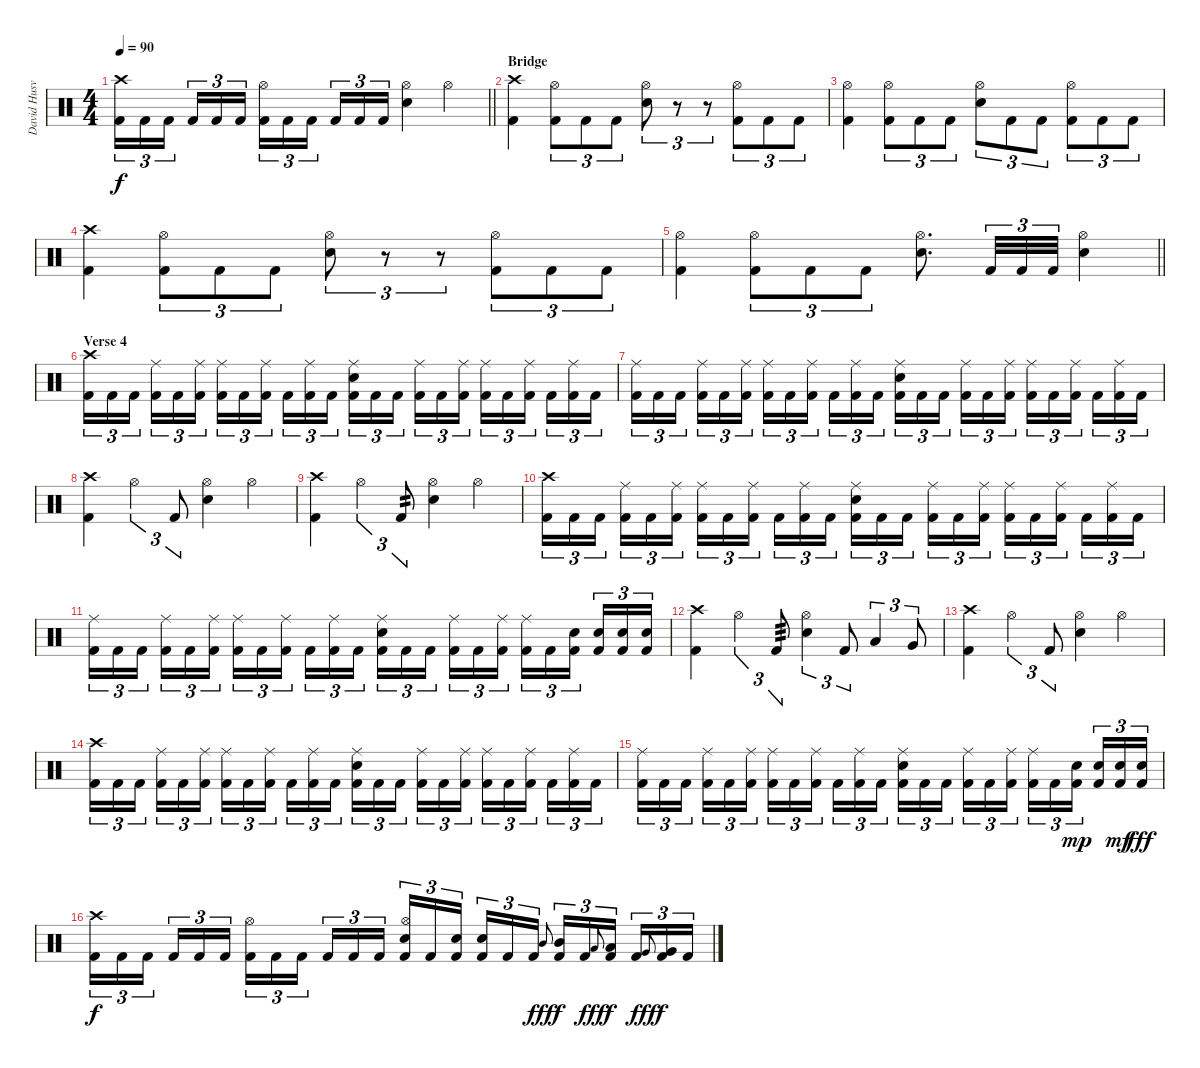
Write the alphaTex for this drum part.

\track ("David Husvik" "David Husv") {instrument percussion}
\staff {score}
\articulation defaults
\ts (4 4)
\tempo 90
\clef neutral
\barLineRight lightlight
\ks c
("Kick (hit) 2" "Crash high (hit)").16{tu (3 2) dy f} "Kick (hit) 2".16{tu (3 2)} "Kick (hit) 2".16{tu (3 2) beam splitsecondary} "Kick (hit) 2".16{tu (3 2)} "Kick (hit) 2".16{tu (3 2)} "Kick (hit) 2".16{tu (3 2)} ("Kick (hit) 2" "Hi-Hat (open)").16{tu (3 2)} "Kick (hit) 2".16{tu (3 2)} "Kick (hit) 2".16{tu (3 2) beam splitsecondary} "Kick (hit) 2".16{tu (3 2)} "Kick (hit) 2".16{tu (3 2)} "Kick (hit) 2".16{tu (3 2)} ("Hi-Hat (open)" "Snare (hit) 2").4 "Hi-Hat (open)".4 |
\section ("" "Bridge")
("Kick (hit) 2" "Crash high (hit)").4 ("Hi-Hat (open)" "Kick (hit) 2").8{tu (3 2)} "Kick (hit) 2".8{tu (3 2)} "Kick (hit) 2".8{tu (3 2)} ("Hi-Hat (open)" "Snare (hit) 2").8{tu (3 2)} r.8{tu (3 2)} r.8{tu (3 2)} ("Kick (hit) 2" "Hi-Hat (open)").8{tu (3 2)} "Kick (hit) 2".8{tu (3 2)} "Kick (hit) 2".8{tu (3 2)} |
("Kick (hit) 2" "Hi-Hat (open)").4 ("Hi-Hat (open)" "Kick (hit) 2").8{tu (3 2)} "Kick (hit) 2".8{tu (3 2)} "Kick (hit) 2".8{tu (3 2)} ("Hi-Hat (open)" "Snare (hit) 2").8{tu (3 2)} "Kick (hit) 2".8{tu (3 2)} "Kick (hit) 2".8{tu (3 2)} ("Hi-Hat (open)" "Kick (hit) 2").8{tu (3 2)} "Kick (hit) 2".8{tu (3 2)} "Kick (hit) 2".8{tu (3 2)} |
("Kick (hit) 2" "Crash high (hit)").4 ("Hi-Hat (open)" "Kick (hit) 2").8{tu (3 2)} "Kick (hit) 2".8{tu (3 2)} "Kick (hit) 2".8{tu (3 2)} ("Hi-Hat (open)" "Snare (hit) 2").8{tu (3 2)} r.8{tu (3 2)} r.8{tu (3 2)} ("Kick (hit) 2" "Hi-Hat (open)").8{tu (3 2)} "Kick (hit) 2".8{tu (3 2)} "Kick (hit) 2".8{tu (3 2)} |
\barLineRight lightlight
("Kick (hit) 2" "Hi-Hat (open)").4 ("Hi-Hat (open)" "Kick (hit) 2").8{tu (3 2)} "Kick (hit) 2".8{tu (3 2)} "Kick (hit) 2".8{tu (3 2)} ("Hi-Hat (open)" "Snare (hit) 2").8{d} "Kick (hit) 2".32{tu (3 2)} "Kick (hit) 2".32{tu (3 2)} "Kick (hit) 2".32{tu (3 2)} ("Snare (hit) 2" "Hi-Hat (open)").4 |
\section ("" "Verse 4")
("Kick (hit) 2" "Crash high (hit)").16{tu (3 2)} "Kick (hit) 2".16{tu (3 2)} "Kick (hit) 2".16{tu (3 2) beam splitsecondary} ("Kick (hit) 2" "Ride (middle)").16{tu (3 2)} "Kick (hit) 2".16{tu (3 2)} ("Kick (hit) 2" "Ride (middle)").16{tu (3 2)} ("Kick (hit) 2" "Ride (middle)").16{tu (3 2)} "Kick (hit) 2".16{tu (3 2)} ("Kick (hit) 2" "Ride (middle)").16{tu (3 2) beam splitsecondary} "Kick (hit) 2".16{tu (3 2)} ("Kick (hit) 2" "Ride (middle)").16{tu (3 2)} "Kick (hit) 2".16{tu (3 2)} ("Kick (hit) 2" "Snare (hit) 2" "Ride (middle)").16{tu (3 2)} "Kick (hit) 2".16{tu (3 2)} "Kick (hit) 2".16{tu (3 2) beam splitsecondary} ("Kick (hit) 2" "Ride (middle)").16{tu (3 2)} "Kick (hit) 2".16{tu (3 2)} ("Kick (hit) 2" "Ride (middle)").16{tu (3 2)} ("Kick (hit) 2" "Ride (middle)").16{tu (3 2)} "Kick (hit) 2".16{tu (3 2)} ("Kick (hit) 2" "Ride (middle)").16{tu (3 2) beam splitsecondary} "Kick (hit) 2".16{tu (3 2)} ("Kick (hit) 2" "Ride (middle)").16{tu (3 2)} "Kick (hit) 2".16{tu (3 2)} |
("Kick (hit) 2" "Ride (middle)").16{tu (3 2)} "Kick (hit) 2".16{tu (3 2)} "Kick (hit) 2".16{tu (3 2) beam splitsecondary} ("Kick (hit) 2" "Ride (middle)").16{tu (3 2)} "Kick (hit) 2".16{tu (3 2)} ("Kick (hit) 2" "Ride (middle)").16{tu (3 2)} ("Kick (hit) 2" "Ride (middle)").16{tu (3 2)} "Kick (hit) 2".16{tu (3 2)} ("Kick (hit) 2" "Ride (middle)").16{tu (3 2) beam splitsecondary} "Kick (hit) 2".16{tu (3 2)} ("Kick (hit) 2" "Ride (middle)").16{tu (3 2)} "Kick (hit) 2".16{tu (3 2)} ("Kick (hit) 2" "Snare (hit) 2" "Ride (middle)").16{tu (3 2)} "Kick (hit) 2".16{tu (3 2)} "Kick (hit) 2".16{tu (3 2) beam splitsecondary} ("Kick (hit) 2" "Ride (middle)").16{tu (3 2)} "Kick (hit) 2".16{tu (3 2)} ("Kick (hit) 2" "Ride (middle)").16{tu (3 2)} ("Kick (hit) 2" "Ride (middle)").16{tu (3 2)} "Kick (hit) 2".16{tu (3 2)} ("Kick (hit) 2" "Ride (middle)").16{tu (3 2) beam splitsecondary} "Kick (hit) 2".16{tu (3 2)} ("Kick (hit) 2" "Ride (middle)").16{tu (3 2)} "Kick (hit) 2".16{tu (3 2)} |
("Crash high (hit)" "Kick (hit) 2").4 "Hi-Hat (open)".4{tu (3 2)} "Kick (hit) 2".8{tu (3 2)} ("Hi-Hat (open)" "Snare (hit) 2").4 "Hi-Hat (open)".4 |
("Crash high (hit)" "Kick (hit) 2").4 "Hi-Hat (open)".4{tu (3 2)} "Kick (hit) 2".8{tu (3 2) tp 2} ("Hi-Hat (open)" "Snare (hit) 2").4 "Hi-Hat (open)".4 |
("Kick (hit) 2" "Crash high (hit)").16{tu (3 2)} "Kick (hit) 2".16{tu (3 2)} "Kick (hit) 2".16{tu (3 2) beam splitsecondary} ("Kick (hit) 2" "Ride (middle)").16{tu (3 2)} "Kick (hit) 2".16{tu (3 2)} ("Kick (hit) 2" "Ride (middle)").16{tu (3 2)} ("Kick (hit) 2" "Ride (middle)").16{tu (3 2)} "Kick (hit) 2".16{tu (3 2)} ("Kick (hit) 2" "Ride (middle)").16{tu (3 2) beam splitsecondary} "Kick (hit) 2".16{tu (3 2)} ("Kick (hit) 2" "Ride (middle)").16{tu (3 2)} "Kick (hit) 2".16{tu (3 2)} ("Kick (hit) 2" "Snare (hit) 2" "Ride (middle)").16{tu (3 2)} "Kick (hit) 2".16{tu (3 2)} "Kick (hit) 2".16{tu (3 2) beam splitsecondary} ("Kick (hit) 2" "Ride (middle)").16{tu (3 2)} "Kick (hit) 2".16{tu (3 2)} ("Kick (hit) 2" "Ride (middle)").16{tu (3 2)} ("Kick (hit) 2" "Ride (middle)").16{tu (3 2)} "Kick (hit) 2".16{tu (3 2)} ("Kick (hit) 2" "Ride (middle)").16{tu (3 2) beam splitsecondary} "Kick (hit) 2".16{tu (3 2)} ("Kick (hit) 2" "Ride (middle)").16{tu (3 2)} "Kick (hit) 2".16{tu (3 2)} |
("Kick (hit) 2" "Ride (middle)").16{tu (3 2)} "Kick (hit) 2".16{tu (3 2)} "Kick (hit) 2".16{tu (3 2) beam splitsecondary} ("Kick (hit) 2" "Ride (middle)").16{tu (3 2)} "Kick (hit) 2".16{tu (3 2)} ("Kick (hit) 2" "Ride (middle)").16{tu (3 2)} ("Kick (hit) 2" "Ride (middle)").16{tu (3 2)} "Kick (hit) 2".16{tu (3 2)} ("Kick (hit) 2" "Ride (middle)").16{tu (3 2) beam splitsecondary} "Kick (hit) 2".16{tu (3 2)} ("Kick (hit) 2" "Ride (middle)").16{tu (3 2)} "Kick (hit) 2".16{tu (3 2)} ("Kick (hit) 2" "Snare (hit) 2" "Ride (middle)").16{tu (3 2)} "Kick (hit) 2".16{tu (3 2)} "Kick (hit) 2".16{tu (3 2) beam splitsecondary} ("Kick (hit) 2" "Ride (middle)").16{tu (3 2)} "Kick (hit) 2".16{tu (3 2)} ("Kick (hit) 2" "Ride (middle)").16{tu (3 2)} ("Kick (hit) 2" "Ride (middle)").16{tu (3 2)} "Kick (hit) 2".16{tu (3 2)} ("Kick (hit) 2" "Snare (hit) 2").16{tu (3 2) beam splitsecondary} ("Kick (hit) 2" "Snare (hit) 2").16{tu (3 2)} ("Kick (hit) 2" "Snare (hit) 2").16{tu (3 2)} ("Kick (hit) 2" "Snare (hit) 2").16{tu (3 2)} |
("Crash high (hit)" "Kick (hit) 2").4 "Hi-Hat (open)".4{tu (3 2)} "Kick (hit) 2".8{tu (3 2) tp 3} ("Hi-Hat (open)" "Snare (hit) 2").4{tu (3 2)} "Kick (hit) 2".8{tu (3 2)} "Low Tom (hit)".4{tu (3 2)} "Very Low Tom (hit)".8{tu (3 2)} |
("Crash high (hit)" "Kick (hit) 2").4 "Hi-Hat (open)".4{tu (3 2)} "Kick (hit) 2".8{tu (3 2)} ("Hi-Hat (open)" "Snare (hit) 2").4 "Hi-Hat (open)".4 |
("Kick (hit) 2" "Crash high (hit)").16{tu (3 2)} "Kick (hit) 2".16{tu (3 2)} "Kick (hit) 2".16{tu (3 2) beam splitsecondary} ("Kick (hit) 2" "Ride (middle)").16{tu (3 2)} "Kick (hit) 2".16{tu (3 2)} ("Kick (hit) 2" "Ride (middle)").16{tu (3 2)} ("Kick (hit) 2" "Ride (middle)").16{tu (3 2)} "Kick (hit) 2".16{tu (3 2)} ("Kick (hit) 2" "Ride (middle)").16{tu (3 2) beam splitsecondary} "Kick (hit) 2".16{tu (3 2)} ("Kick (hit) 2" "Ride (middle)").16{tu (3 2)} "Kick (hit) 2".16{tu (3 2)} ("Kick (hit) 2" "Snare (hit) 2" "Ride (middle)").16{tu (3 2)} "Kick (hit) 2".16{tu (3 2)} "Kick (hit) 2".16{tu (3 2) beam splitsecondary} ("Kick (hit) 2" "Ride (middle)").16{tu (3 2)} "Kick (hit) 2".16{tu (3 2)} ("Kick (hit) 2" "Ride (middle)").16{tu (3 2)} ("Kick (hit) 2" "Ride (middle)").16{tu (3 2)} "Kick (hit) 2".16{tu (3 2)} ("Kick (hit) 2" "Ride (middle)").16{tu (3 2) beam splitsecondary} "Kick (hit) 2".16{tu (3 2)} ("Kick (hit) 2" "Ride (middle)").16{tu (3 2)} "Kick (hit) 2".16{tu (3 2)} |
("Kick (hit) 2" "Ride (middle)").16{tu (3 2)} "Kick (hit) 2".16{tu (3 2)} "Kick (hit) 2".16{tu (3 2) beam splitsecondary} ("Kick (hit) 2" "Ride (middle)").16{tu (3 2)} "Kick (hit) 2".16{tu (3 2)} ("Kick (hit) 2" "Ride (middle)").16{tu (3 2)} ("Kick (hit) 2" "Ride (middle)").16{tu (3 2)} "Kick (hit) 2".16{tu (3 2)} ("Kick (hit) 2" "Ride (middle)").16{tu (3 2) beam splitsecondary} "Kick (hit) 2".16{tu (3 2)} ("Kick (hit) 2" "Ride (middle)").16{tu (3 2)} "Kick (hit) 2".16{tu (3 2)} ("Kick (hit) 2" "Snare (hit) 2" "Ride (middle)").16{tu (3 2)} "Kick (hit) 2".16{tu (3 2)} "Kick (hit) 2".16{tu (3 2) beam splitsecondary} ("Kick (hit) 2" "Ride (middle)").16{tu (3 2)} "Kick (hit) 2".16{tu (3 2)} ("Kick (hit) 2" "Ride (middle)").16{tu (3 2)} ("Kick (hit) 2" "Ride (middle)").16{tu (3 2)} "Kick (hit) 2".16{tu (3 2)} ("Kick (hit) 2" "Snare (hit) 2").16{tu (3 2) dy mp beam splitsecondary} ("Kick (hit) 2" "Snare (hit) 2").16{tu (3 2)} ("Kick (hit) 2" "Snare (hit) 2").16{tu (3 2) dy mf} ("Kick (hit) 2" "Snare (hit) 2").16{tu (3 2) dy fff} |
("Kick (hit) 2" "Crash high (hit)").16{tu (3 2) dy f} "Kick (hit) 2".16{tu (3 2)} "Kick (hit) 2".16{tu (3 2) beam splitsecondary} "Kick (hit) 2".16{tu (3 2)} "Kick (hit) 2".16{tu (3 2)} "Kick (hit) 2".16{tu (3 2)} ("Kick (hit) 2" "Hi-Hat (open)").16{tu (3 2)} "Kick (hit) 2".16{tu (3 2)} "Kick (hit) 2".16{tu (3 2) beam splitsecondary} "Kick (hit) 2".16{tu (3 2)} "Kick (hit) 2".16{tu (3 2)} "Kick (hit) 2".16{tu (3 2)} ("Kick (hit) 2" "Hi-Hat (open)" "Snare (hit) 2").16{tu (3 2)} "Kick (hit) 2".16{tu (3 2)} ("Kick (hit) 2" "Snare (hit) 2").16{tu (3 2) beam splitsecondary} ("Kick (hit) 2" "Snare (hit) 2").16{tu (3 2)} "Kick (hit) 2".16{tu (3 2)} "Kick (hit) 2".16{tu (3 2)} "Mid Tom (hit)".8{gr onbeat dy fff} ("Kick (hit) 2" "Mid Tom (hit)").16{tu (3 2) dy f} "Kick (hit) 2".16{tu (3 2)} "Low Tom (hit)".8{gr onbeat dy fff} ("Kick (hit) 2" "Low Tom (hit)").16{tu (3 2) dy f beam splitsecondary} "Kick (hit) 2".16{tu (3 2)} "Very Low Tom (hit)".8{gr onbeat dy fff} ("Kick (hit) 2" "Very Low Tom (hit)").16{tu (3 2) dy f} "Kick (hit) 2".16{tu (3 2)}
